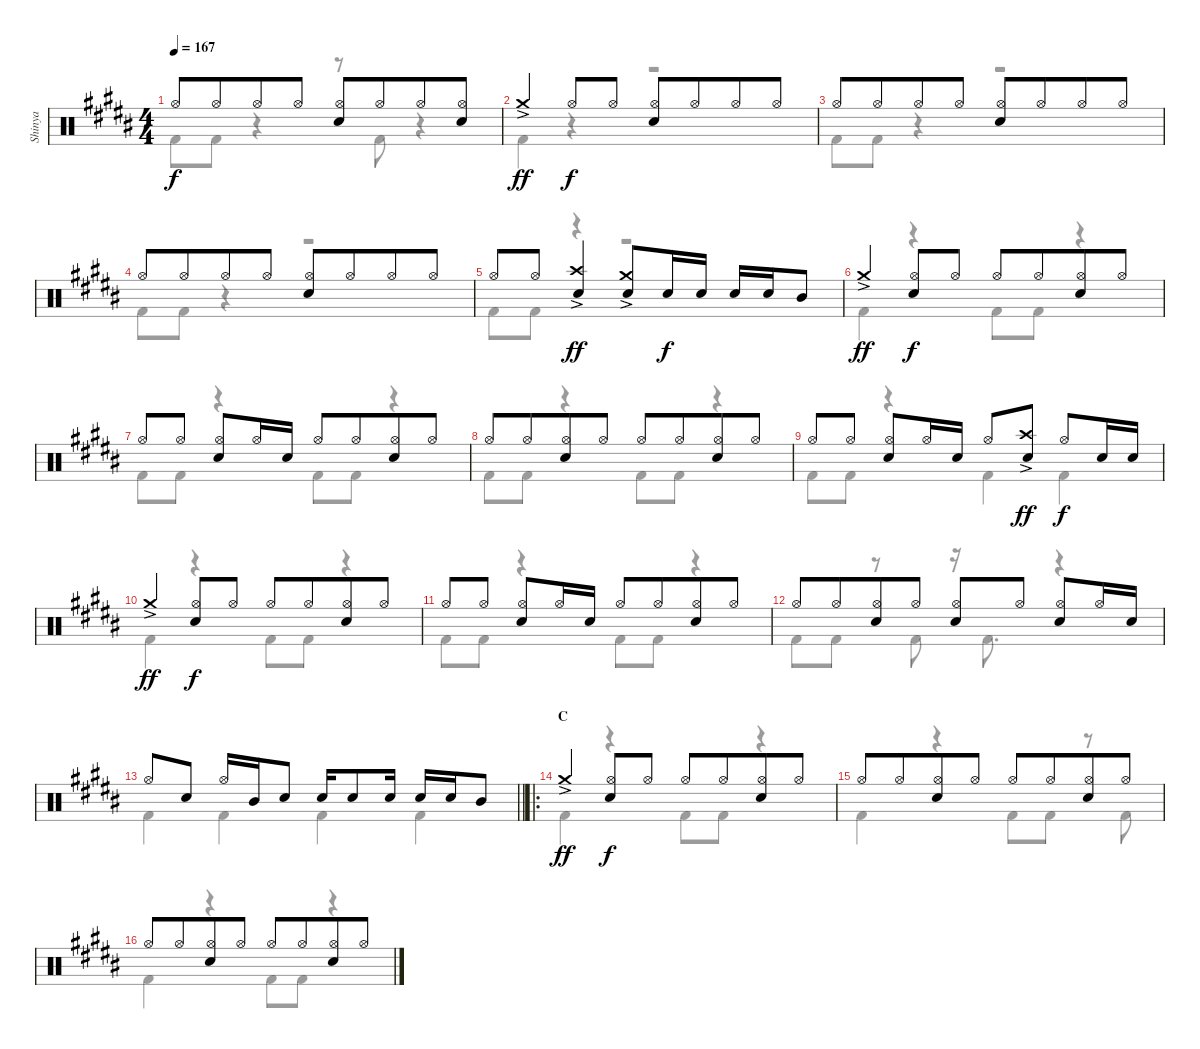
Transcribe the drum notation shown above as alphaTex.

\track ("Shinya" "Shinya") {instrument percussion}
\staff {score}
\articulation defaults
\voice
\ts (4 4)
\tempo 167
\clef neutral
\ks g#minor "Hi-Hat (open)".8{dy f} "Hi-Hat (open)".8{beam merge} "Hi-Hat (open)".8 "Hi-Hat (open)".8
("Hi-Hat (open)" "Snare (hit) 2").8 "Hi-Hat (open)".8{beam merge} "Hi-Hat (open)".8 ("Hi-Hat (open)" "Snare (hit) 2").8 |
"Crash medium (hit)"{ac}.4{dy ff} "Hi-Hat (open)".8{dy f} "Hi-Hat (open)".8 ("Hi-Hat (open)" "Snare (hit) 2").8 "Hi-Hat (open)".8{beam merge} "Hi-Hat (open)".8 "Hi-Hat (open)".8 |
"Hi-Hat (open)".8 "Hi-Hat (open)".8{beam merge} "Hi-Hat (open)".8 "Hi-Hat (open)".8 ("Hi-Hat (open)" "Snare (hit) 2").8 "Hi-Hat (open)".8{beam merge} "Hi-Hat (open)".8 "Hi-Hat (open)".8 |
"Hi-Hat (open)".8 "Hi-Hat (open)".8{beam merge} "Hi-Hat (open)".8 "Hi-Hat (open)".8 ("Hi-Hat (open)" "Snare (hit) 2").8 "Hi-Hat (open)".8{beam merge} "Hi-Hat (open)".8 "Hi-Hat (open)".8 |
"Hi-Hat (open)".8 "Hi-Hat (open)".8 ("Crash high (hit)"{ac} "Snare (hit) 2").4{dy ff} ("Crash medium (hit)"{ac} "Snare (hit) 2").8 "Snare (hit) 2".16{dy f} "Snare (hit) 2".16 "Snare (hit) 2".16 "Snare (hit) 2".16 "Mid Tom (hit)".8 |
"Crash medium (hit)"{ac}.4{dy ff} ("Hi-Hat (open)" "Snare (hit) 2").8{dy f} "Hi-Hat (open)".8 "Hi-Hat (open)".8 "Hi-Hat (open)".8{beam merge} ("Hi-Hat (open)" "Snare (hit) 2").8 "Hi-Hat (open)".8 |
"Hi-Hat (open)".8 "Hi-Hat (open)".8 ("Hi-Hat (open)" "Snare (hit) 2").8 "Hi-Hat (open)".16 "Snare (hit) 2".16 "Hi-Hat (open)".8 "Hi-Hat (open)".8{beam merge} ("Hi-Hat (open)" "Snare (hit) 2").8 "Hi-Hat (open)".8 |
"Hi-Hat (open)".8 "Hi-Hat (open)".8{beam merge} ("Hi-Hat (open)" "Snare (hit) 2").8 "Hi-Hat (open)".8 "Hi-Hat (open)".8 "Hi-Hat (open)".8{beam merge} ("Hi-Hat (open)" "Snare (hit) 2").8 "Hi-Hat (open)".8 |
"Hi-Hat (open)".8 "Hi-Hat (open)".8 ("Hi-Hat (open)" "Snare (hit) 2").8 "Hi-Hat (open)".16 "Snare (hit) 2".16 "Hi-Hat (open)".8 ("Crash high (hit)"{ac} "Snare (hit) 2").8{dy ff} "Hi-Hat (open)".8{dy f} "Snare (hit) 2".16 "Snare (hit) 2".16 |
"Crash medium (hit)"{ac}.4{dy ff} ("Hi-Hat (open)" "Snare (hit) 2").8{dy f} "Hi-Hat (open)".8 "Hi-Hat (open)".8 "Hi-Hat (open)".8{beam merge} ("Hi-Hat (open)" "Snare (hit) 2").8 "Hi-Hat (open)".8 |
"Hi-Hat (open)".8 "Hi-Hat (open)".8 ("Hi-Hat (open)" "Snare (hit) 2").8 "Hi-Hat (open)".16 "Snare (hit) 2".16 "Hi-Hat (open)".8 "Hi-Hat (open)".8{beam merge} ("Hi-Hat (open)" "Snare (hit) 2").8 "Hi-Hat (open)".8 |
"Hi-Hat (open)".8 "Hi-Hat (open)".8{beam merge} ("Hi-Hat (open)" "Snare (hit) 2").8 "Hi-Hat (open)".8 ("Hi-Hat (open)" "Snare (hit) 2").8 "Hi-Hat (open)".8 ("Hi-Hat (open)" "Snare (hit) 2").8 "Hi-Hat (open)".16 "Snare (hit) 2".16 |
\barLineRight lightlight "Hi-Hat (open)".8 "Snare (hit) 2".8 "Hi-Hat (open)".16 "Mid Tom (hit)".16 "Snare (hit) 2".8 "Snare (hit) 2".16 "Snare (hit) 2".8 "Snare (hit) 2".16 "Snare (hit) 2".16 "Snare (hit) 2".16 "Mid Tom (hit)".8
|
\ro
\section ("" "C")
"Crash medium (hit)"{ac}.4{dy ff} ("Hi-Hat (open)" "Snare (hit) 2").8{dy f} "Hi-Hat (open)".8 "Hi-Hat (open)".8 "Hi-Hat (open)".8{beam merge} ("Hi-Hat (open)" "Snare (hit) 2").8 "Hi-Hat (open)".8 |
"Hi-Hat (open)".8 "Hi-Hat (open)".8{beam merge} ("Hi-Hat (open)" "Snare (hit) 2").8 "Hi-Hat (open)".8 "Hi-Hat (open)".8 "Hi-Hat (open)".8{beam merge} ("Hi-Hat (open)" "Snare (hit) 2").8 "Hi-Hat (open)".8 |
"Hi-Hat (open)".8 "Hi-Hat (open)".8{beam merge} ("Hi-Hat (open)" "Snare (hit) 2").8 "Hi-Hat (open)".8 "Hi-Hat (open)".8 "Hi-Hat (open)".8{beam merge} ("Hi-Hat (open)" "Snare (hit) 2").8 "Hi-Hat (open)".8
\voice
\clef neutral
\ottava regular
\simile none
\ks g#minor "Kick (hit) 2".8{dy f} "Kick (hit) 2".8
r.4 r.8 "Kick (hit) 2".8 r.4 |
"Kick (hit) 2".4 r.4 r.2 |
"Kick (hit) 2".8 "Kick (hit) 2".8 r.4 r.2 |
"Kick (hit) 2".8 "Kick (hit) 2".8 r.4 r.2 |
"Kick (hit) 2".8 "Kick (hit) 2".8 r.4 r.2 |
"Kick (hit) 2".4 r.4 "Kick (hit) 2".8 "Kick (hit) 2".8 r.4 |
"Kick (hit) 2".8 "Kick (hit) 2".8 r.4 "Kick (hit) 2".8 "Kick (hit) 2".8 r.4 |
"Kick (hit) 2".8 "Kick (hit) 2".8 r.4 "Kick (hit) 2".8 "Kick (hit) 2".8 r.4 |
"Kick (hit) 2".8 "Kick (hit) 2".8 r.4 "Kick (hit) 2".4 "Kick (hit) 2".4 |
"Kick (hit) 2".4 r.4 "Kick (hit) 2".8 "Kick (hit) 2".8 r.4 |
"Kick (hit) 2".8 "Kick (hit) 2".8 r.4 "Kick (hit) 2".8 "Kick (hit) 2".8 r.4 |
"Kick (hit) 2".8 "Kick (hit) 2".8 r.8 "Kick (hit) 2".8 r.16 "Kick (hit) 2".8{d} r.4 |
\barLineRight lightlight "Kick (hit) 2".4 "Kick (hit) 2".4 "Kick (hit) 2".4 "Kick (hit) 2".4
|
"Kick (hit) 2".4 r.4 "Kick (hit) 2".8 "Kick (hit) 2".8 r.4 |
"Kick (hit) 2".4 r.4 "Kick (hit) 2".8 "Kick (hit) 2".8 r.8 "Kick (hit) 2".8 |
"Kick (hit) 2".4 r.4 "Kick (hit) 2".8 "Kick (hit) 2".8 r.4
